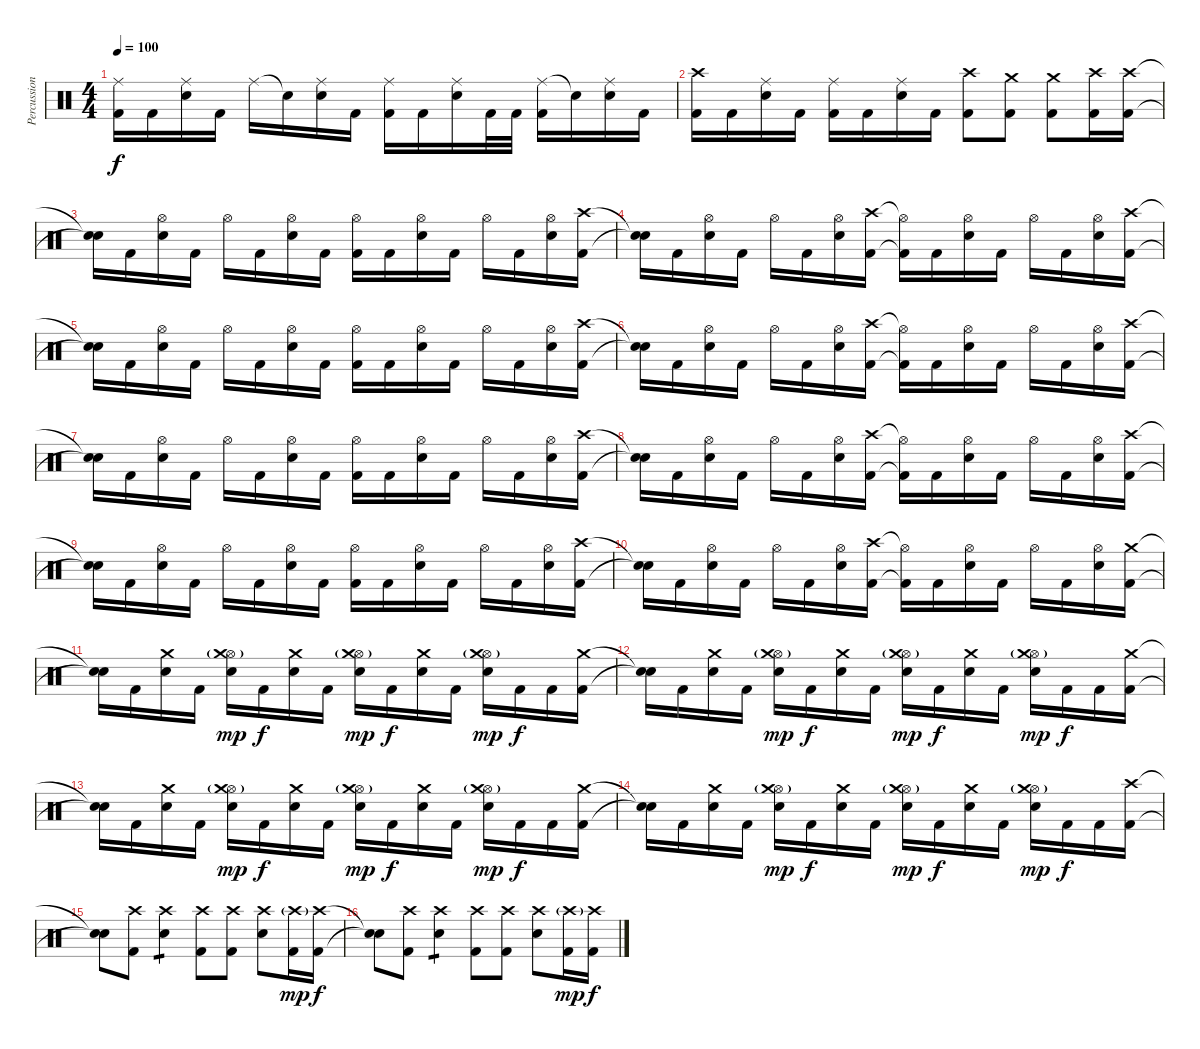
\track ("Percussion" "Percussion") {instrument percussion}
\staff {score}
\articulation defaults
\ts (4 4)
\tempo 100
\clef neutral
\ks c
("Ride (middle)" "Kick (hit) 2").16{dy f} "Kick (hit) 2".16 ("Ride (middle)" "Electric Snare (hit)").16 "Kick (hit) 2".16 "Ride (middle)".16 "Snare (hit)"{t}.16 ("Ride (middle)" "Electric Snare (hit)").16 "Kick (hit) 2".16 ("Ride (middle)" "Kick (hit) 2").16 "Kick (hit) 2".16 ("Ride (middle)" "Electric Snare (hit)").16 "Kick (hit) 2".32 "Kick (hit) 2".32 ("Ride (middle)" "Kick (hit) 2").16 "Snare (hit)"{t}.16 ("Ride (middle)" "Electric Snare (hit)").16 "Kick (hit) 2".16 |
("Crash high (hit)" "Kick (hit) 2").16 "Kick (hit) 2".16 ("Ride (middle)" "Electric Snare (hit)").16 "Kick (hit) 2".16 ("Ride (middle)" "Kick (hit) 2").16 "Kick (hit) 2".16 ("Ride (middle)" "Electric Snare (hit)").16 "Kick (hit) 2".16 ("Crash high (hit)" "Kick (hit) 2").8 ("Crash medium (hit)" "Kick (hit) 2").8 ("Crash medium (hit)" "Kick (hit) 2").8 ("Crash high (hit)" "Kick (hit) 2").16 ("Crash high (hit)" "Kick (hit) 2").16 |
("Snare (hit)"{t} "Snare (hit)"{t}).16 "Kick (hit) 2".16 ("Hi-Hat (open)" "Electric Snare (hit)").16 "Kick (hit) 2".16 "Hi-Hat (open)".16 "Kick (hit) 2".16 ("Hi-Hat (open)" "Electric Snare (hit)").16 "Kick (hit) 2".16 ("Hi-Hat (open)" "Kick (hit) 2").16 "Kick (hit) 2".16 ("Hi-Hat (open)" "Electric Snare (hit)").16 "Kick (hit) 2".16 "Hi-Hat (open)".16 "Kick (hit) 2".16 ("Hi-Hat (open)" "Electric Snare (hit)").16 ("Crash high (hit)" "Kick (hit) 2").16 |
("Snare (hit)"{t} "Snare (hit)"{t}).16 "Kick (hit) 2".16 ("Hi-Hat (open)" "Electric Snare (hit)").16 "Kick (hit) 2".16 "Hi-Hat (open)".16 "Kick (hit) 2".16 ("Hi-Hat (open)" "Electric Snare (hit)").16 ("Crash high (hit)" "Kick (hit) 2").16 ("Hi-Hat (open)"{t} "Kick (hit) 2"{t}).16 "Kick (hit) 2".16 ("Hi-Hat (open)" "Electric Snare (hit)").16 "Kick (hit) 2".16 "Hi-Hat (open)".16 "Kick (hit) 2".16 ("Hi-Hat (open)" "Electric Snare (hit)").16 ("Crash high (hit)" "Kick (hit) 2").16 |
("Snare (hit)"{t} "Snare (hit)"{t}).16 "Kick (hit) 2".16 ("Hi-Hat (open)" "Electric Snare (hit)").16 "Kick (hit) 2".16 "Hi-Hat (open)".16 "Kick (hit) 2".16 ("Hi-Hat (open)" "Electric Snare (hit)").16 "Kick (hit) 2".16 ("Hi-Hat (open)" "Kick (hit) 2").16 "Kick (hit) 2".16 ("Hi-Hat (open)" "Electric Snare (hit)").16 "Kick (hit) 2".16 "Hi-Hat (open)".16 "Kick (hit) 2".16 ("Hi-Hat (open)" "Electric Snare (hit)").16 ("Crash high (hit)" "Kick (hit) 2").16 |
("Snare (hit)"{t} "Snare (hit)"{t}).16 "Kick (hit) 2".16 ("Hi-Hat (open)" "Electric Snare (hit)").16 "Kick (hit) 2".16 "Hi-Hat (open)".16 "Kick (hit) 2".16 ("Hi-Hat (open)" "Electric Snare (hit)").16 ("Crash high (hit)" "Kick (hit) 2").16 ("Hi-Hat (open)"{t} "Kick (hit) 2"{t}).16 "Kick (hit) 2".16 ("Hi-Hat (open)" "Electric Snare (hit)").16 "Kick (hit) 2".16 "Hi-Hat (open)".16 "Kick (hit) 2".16 ("Hi-Hat (open)" "Electric Snare (hit)").16 ("Crash high (hit)" "Kick (hit) 2").16 |
("Snare (hit)"{t} "Snare (hit)"{t}).16 "Kick (hit) 2".16 ("Hi-Hat (open)" "Electric Snare (hit)").16 "Kick (hit) 2".16 "Hi-Hat (open)".16 "Kick (hit) 2".16 ("Hi-Hat (open)" "Electric Snare (hit)").16 "Kick (hit) 2".16 ("Hi-Hat (open)" "Kick (hit) 2").16 "Kick (hit) 2".16 ("Hi-Hat (open)" "Electric Snare (hit)").16 "Kick (hit) 2".16 "Hi-Hat (open)".16 "Kick (hit) 2".16 ("Hi-Hat (open)" "Electric Snare (hit)").16 ("Crash high (hit)" "Kick (hit) 2").16 |
("Snare (hit)"{t} "Snare (hit)"{t}).16 "Kick (hit) 2".16 ("Hi-Hat (open)" "Electric Snare (hit)").16 "Kick (hit) 2".16 "Hi-Hat (open)".16 "Kick (hit) 2".16 ("Hi-Hat (open)" "Electric Snare (hit)").16 ("Crash high (hit)" "Kick (hit) 2").16 ("Hi-Hat (open)"{t} "Kick (hit) 2"{t}).16 "Kick (hit) 2".16 ("Hi-Hat (open)" "Electric Snare (hit)").16 "Kick (hit) 2".16 "Hi-Hat (open)".16 "Kick (hit) 2".16 ("Hi-Hat (open)" "Electric Snare (hit)").16 ("Crash high (hit)" "Kick (hit) 2").16 |
("Snare (hit)"{t} "Snare (hit)"{t}).16 "Kick (hit) 2".16 ("Hi-Hat (open)" "Electric Snare (hit)").16 "Kick (hit) 2".16 "Hi-Hat (open)".16 "Kick (hit) 2".16 ("Hi-Hat (open)" "Electric Snare (hit)").16 "Kick (hit) 2".16 ("Hi-Hat (open)" "Kick (hit) 2").16 "Kick (hit) 2".16 ("Hi-Hat (open)" "Electric Snare (hit)").16 "Kick (hit) 2".16 "Hi-Hat (open)".16 "Kick (hit) 2".16 ("Hi-Hat (open)" "Electric Snare (hit)").16 ("Crash high (hit)" "Kick (hit) 2").16 |
("Snare (hit)"{t} "Snare (hit)"{t}).16 "Kick (hit) 2".16 ("Hi-Hat (open)" "Electric Snare (hit)").16 "Kick (hit) 2".16 "Hi-Hat (open)".16 "Kick (hit) 2".16 ("Hi-Hat (open)" "Electric Snare (hit)").16 ("Crash high (hit)" "Kick (hit) 2").16 ("Hi-Hat (open)"{t} "Kick (hit) 2"{t}).16 "Kick (hit) 2".16 ("Hi-Hat (open)" "Electric Snare (hit)").16 "Kick (hit) 2".16 "Hi-Hat (open)".16 "Kick (hit) 2".16 ("Hi-Hat (open)" "Electric Snare (hit)").16 ("Crash medium (hit)" "Kick (hit) 2").16 |
("Snare (hit)"{t} "Snare (hit)"{t}).16 "Kick (hit) 2".16 ("Crash medium (hit)" "Electric Snare (hit)").16 "Kick (hit) 2".16 ("Hi-Hat (open)"{g} "Crash medium (hit)" "Electric Snare (hit)").16{dy mp} "Kick (hit) 2".16{dy f} ("Crash medium (hit)" "Electric Snare (hit)").16 "Kick (hit) 2".16 ("Hi-Hat (open)"{g} "Crash medium (hit)" "Electric Snare (hit)").16{dy mp} "Kick (hit) 2".16{dy f} ("Crash medium (hit)" "Electric Snare (hit)").16 "Kick (hit) 2".16 ("Hi-Hat (open)"{g} "Crash medium (hit)" "Electric Snare (hit)").16{dy mp} "Kick (hit) 2".16{dy f} "Kick (hit) 2".16 ("Crash medium (hit)" "Kick (hit) 2").16 |
("Snare (hit)"{t} "Snare (hit)"{t}).16 "Kick (hit) 2".16 ("Crash medium (hit)" "Electric Snare (hit)").16 "Kick (hit) 2".16 ("Hi-Hat (open)"{g} "Crash medium (hit)" "Electric Snare (hit)").16{dy mp} "Kick (hit) 2".16{dy f} ("Crash medium (hit)" "Electric Snare (hit)").16 "Kick (hit) 2".16 ("Hi-Hat (open)"{g} "Crash medium (hit)" "Electric Snare (hit)").16{dy mp} "Kick (hit) 2".16{dy f} ("Crash medium (hit)" "Electric Snare (hit)").16 "Kick (hit) 2".16 ("Hi-Hat (open)"{g} "Crash medium (hit)" "Electric Snare (hit)").16{dy mp} "Kick (hit) 2".16{dy f} "Kick (hit) 2".16 ("Crash medium (hit)" "Kick (hit) 2").16 |
("Snare (hit)"{t} "Snare (hit)"{t}).16 "Kick (hit) 2".16 ("Crash medium (hit)" "Electric Snare (hit)").16 "Kick (hit) 2".16 ("Hi-Hat (open)"{g} "Crash medium (hit)" "Electric Snare (hit)").16{dy mp} "Kick (hit) 2".16{dy f} ("Crash medium (hit)" "Electric Snare (hit)").16 "Kick (hit) 2".16 ("Hi-Hat (open)"{g} "Crash medium (hit)" "Electric Snare (hit)").16{dy mp} "Kick (hit) 2".16{dy f} ("Crash medium (hit)" "Electric Snare (hit)").16 "Kick (hit) 2".16 ("Hi-Hat (open)"{g} "Crash medium (hit)" "Electric Snare (hit)").16{dy mp} "Kick (hit) 2".16{dy f} "Kick (hit) 2".16 ("Crash medium (hit)" "Kick (hit) 2").16 |
("Snare (hit)"{t} "Snare (hit)"{t}).16 "Kick (hit) 2".16 ("Crash medium (hit)" "Electric Snare (hit)").16 "Kick (hit) 2".16 ("Hi-Hat (open)"{g} "Crash medium (hit)" "Electric Snare (hit)").16{dy mp} "Kick (hit) 2".16{dy f} ("Crash medium (hit)" "Electric Snare (hit)").16 "Kick (hit) 2".16 ("Hi-Hat (open)"{g} "Crash medium (hit)" "Electric Snare (hit)").16{dy mp} "Kick (hit) 2".16{dy f} ("Crash medium (hit)" "Electric Snare (hit)").16 "Kick (hit) 2".16 ("Hi-Hat (open)"{g} "Crash medium (hit)" "Electric Snare (hit)").16{dy mp} "Kick (hit) 2".16{dy f} "Kick (hit) 2".16 ("Crash high (hit)" "Kick (hit) 2").16 |
("Snare (hit)"{t} "Snare (hit)"{t}).8 ("Crash high (hit)" "Kick (hit) 2").8 ("Crash high (hit)" "Electric Snare (hit)").4{tp 1} ("Crash high (hit)" "Kick (hit) 2").8 ("Crash high (hit)" "Kick (hit) 2").8 ("Crash high (hit)" "Electric Snare (hit)").8 ("Crash high (hit)"{g} "Kick (hit) 2").16{dy mp} ("Crash high (hit)" "Kick (hit) 2").16{dy f} |
("Snare (hit)"{t} "Snare (hit)"{t}).8 ("Crash high (hit)" "Kick (hit) 2").8 ("Crash high (hit)" "Electric Snare (hit)").4{tp 1} ("Crash high (hit)" "Kick (hit) 2").8 ("Crash high (hit)" "Kick (hit) 2").8 ("Crash high (hit)" "Electric Snare (hit)").8 ("Crash high (hit)"{g} "Kick (hit) 2").16{dy mp} ("Crash high (hit)" "Kick (hit) 2").16{dy f}
